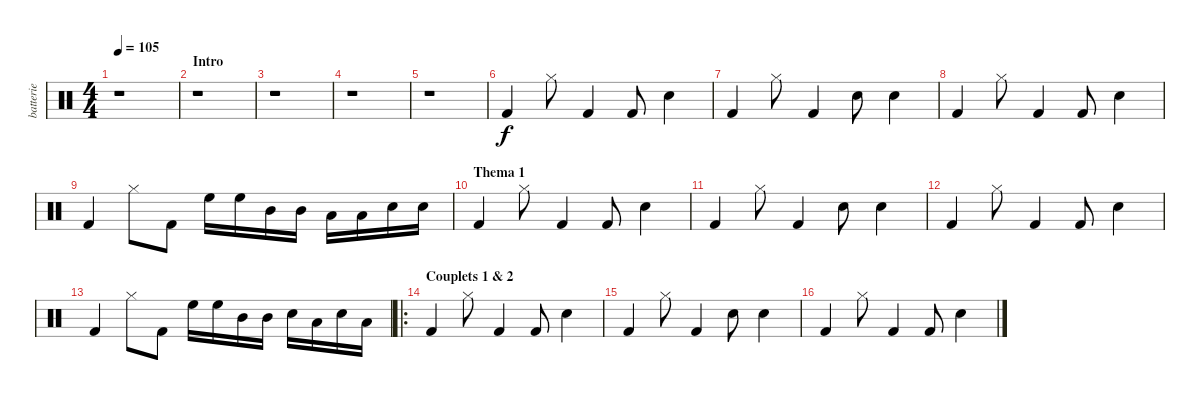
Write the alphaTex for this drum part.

\track ("batterie" "batterie") {instrument percussion}
\staff {score}
\articulation defaults
\ts (4 4)
\tempo 105
\clef neutral
\ks c
r.1{dy f} |
\section ("" "Intro")
r.1 |
r.1 |
r.1 |
r.1 |
"Kick (hit) 2".4 "Hi-Hat (closed)".8 "Kick (hit) 2".4 "Kick (hit) 2".8 "Electric Snare (hit)".4 |
"Kick (hit) 2".4 "Hi-Hat (closed)".8 "Kick (hit) 2".4 "Electric Snare (hit)".8 "Electric Snare (hit)".4 |
"Kick (hit) 2".4 "Hi-Hat (closed)".8 "Kick (hit) 2".4 "Kick (hit) 2".8 "Electric Snare (hit)".4 |
"Kick (hit) 2".4 "Hi-Hat (closed)".8 "Kick (hit) 2".8 "High Floor Tom (hit)".16 "High Floor Tom (hit)".16 "Mid Tom (hit)".16 "Mid Tom (hit)".16 "Low Tom (hit)".16 "Low Tom (hit)".16 "Electric Snare (hit)".16 "Electric Snare (hit)".16 |
\section ("" "Thema 1")
"Kick (hit) 2".4 "Hi-Hat (closed)".8 "Kick (hit) 2".4 "Kick (hit) 2".8 "Electric Snare (hit)".4 |
"Kick (hit) 2".4 "Hi-Hat (closed)".8 "Kick (hit) 2".4 "Electric Snare (hit)".8 "Electric Snare (hit)".4 |
"Kick (hit) 2".4 "Hi-Hat (closed)".8 "Kick (hit) 2".4 "Kick (hit) 2".8 "Electric Snare (hit)".4 |
"Kick (hit) 2".4 "Hi-Hat (closed)".8 "Kick (hit) 2".8 "High Floor Tom (hit)".16 "High Floor Tom (hit)".16 "Mid Tom (hit)".16 "Mid Tom (hit)".16 "Electric Snare (hit)".16 "Low Tom (hit)".16 "Electric Snare (hit)".16 "Low Tom (hit)".16 |
\ro
\section ("" "Couplets 1 & 2")
"Kick (hit) 2".4 "Hi-Hat (closed)".8 "Kick (hit) 2".4 "Kick (hit) 2".8 "Electric Snare (hit)".4 |
"Kick (hit) 2".4 "Hi-Hat (closed)".8 "Kick (hit) 2".4 "Electric Snare (hit)".8 "Electric Snare (hit)".4 |
"Kick (hit) 2".4 "Hi-Hat (closed)".8 "Kick (hit) 2".4 "Kick (hit) 2".8 "Electric Snare (hit)".4
